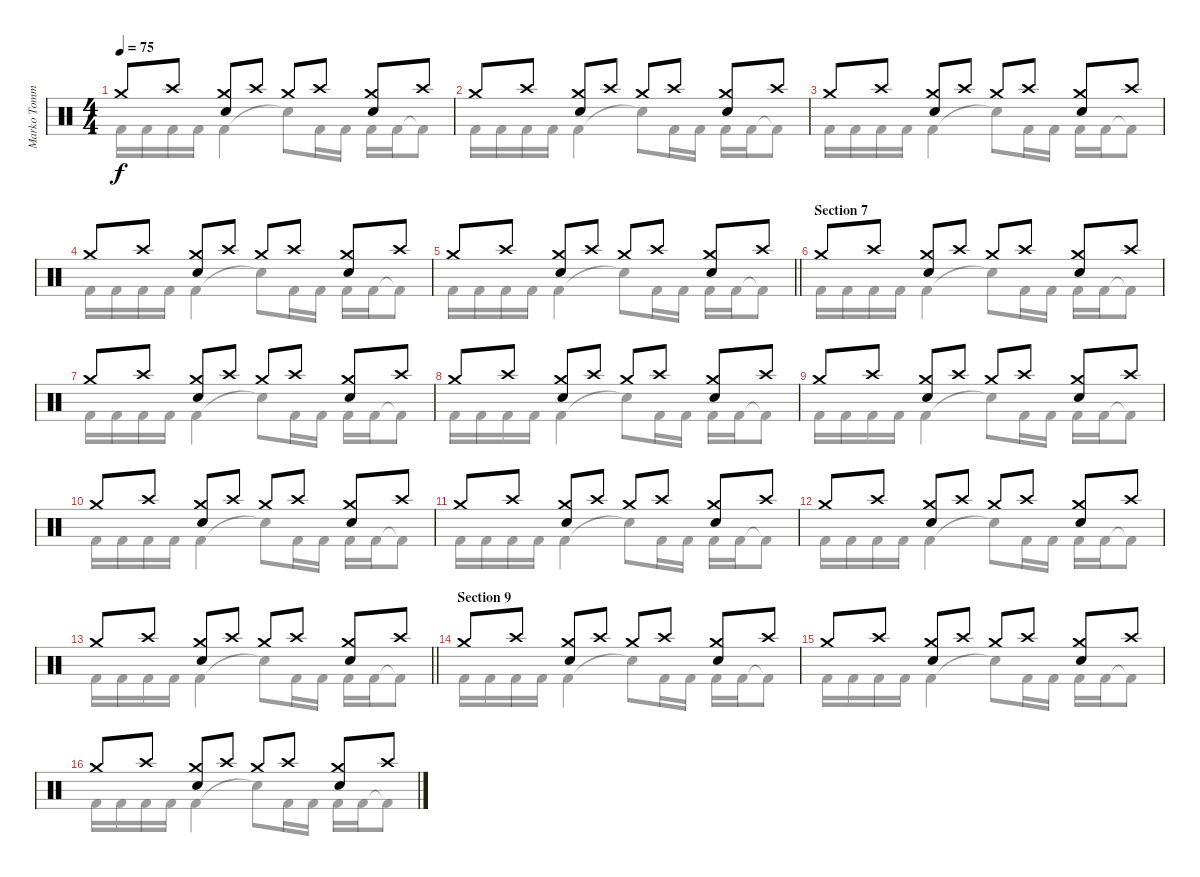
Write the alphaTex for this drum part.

\track ("Marko Tommila (drums)" "Marko Tomm") {instrument percussion}
\staff {score}
\articulation defaults
\voice
\ts (4 4)
\tempo 75
\clef neutral
\ks aminor "Crash medium (hit)".8{dy f} "Crash high (hit)".8
("Crash medium (hit)" "Electric Snare (hit)").8 "Crash high (hit)".8 "Crash medium (hit)".8 "Crash high (hit)".8 ("Crash medium (hit)" "Electric Snare (hit)").8 "Crash high (hit)".8 |
"Crash medium (hit)".8 "Crash high (hit)".8 ("Crash medium (hit)" "Electric Snare (hit)").8 "Crash high (hit)".8 "Crash medium (hit)".8 "Crash high (hit)".8 ("Crash medium (hit)" "Electric Snare (hit)").8 "Crash high (hit)".8 |
"Crash medium (hit)".8 "Crash high (hit)".8 ("Crash medium (hit)" "Electric Snare (hit)").8 "Crash high (hit)".8 "Crash medium (hit)".8 "Crash high (hit)".8 ("Crash medium (hit)" "Electric Snare (hit)").8 "Crash high (hit)".8 |
"Crash medium (hit)".8 "Crash high (hit)".8 ("Crash medium (hit)" "Electric Snare (hit)").8 "Crash high (hit)".8 "Crash medium (hit)".8 "Crash high (hit)".8 ("Crash medium (hit)" "Electric Snare (hit)").8 "Crash high (hit)".8 |
\barLineRight lightlight "Crash medium (hit)".8 "Crash high (hit)".8
("Crash medium (hit)" "Electric Snare (hit)").8 "Crash high (hit)".8 "Crash medium (hit)".8 "Crash high (hit)".8 ("Crash medium (hit)" "Electric Snare (hit)").8 "Crash high (hit)".8 |
\section ("" "Section 7")
"Crash medium (hit)".8 "Crash high (hit)".8 ("Crash medium (hit)" "Electric Snare (hit)").8 "Crash high (hit)".8 "Crash medium (hit)".8 "Crash high (hit)".8 ("Crash medium (hit)" "Electric Snare (hit)").8 "Crash high (hit)".8 |
"Crash medium (hit)".8 "Crash high (hit)".8 ("Crash medium (hit)" "Electric Snare (hit)").8 "Crash high (hit)".8 "Crash medium (hit)".8 "Crash high (hit)".8 ("Crash medium (hit)" "Electric Snare (hit)").8 "Crash high (hit)".8 |
"Crash medium (hit)".8 "Crash high (hit)".8 ("Crash medium (hit)" "Electric Snare (hit)").8 "Crash high (hit)".8 "Crash medium (hit)".8 "Crash high (hit)".8 ("Crash medium (hit)" "Electric Snare (hit)").8 "Crash high (hit)".8 |
"Crash medium (hit)".8 "Crash high (hit)".8 ("Crash medium (hit)" "Electric Snare (hit)").8 "Crash high (hit)".8 "Crash medium (hit)".8 "Crash high (hit)".8 ("Crash medium (hit)" "Electric Snare (hit)").8 "Crash high (hit)".8 |
"Crash medium (hit)".8 "Crash high (hit)".8 ("Crash medium (hit)" "Electric Snare (hit)").8 "Crash high (hit)".8 "Crash medium (hit)".8 "Crash high (hit)".8 ("Crash medium (hit)" "Electric Snare (hit)").8 "Crash high (hit)".8 |
"Crash medium (hit)".8 "Crash high (hit)".8 ("Crash medium (hit)" "Electric Snare (hit)").8 "Crash high (hit)".8 "Crash medium (hit)".8 "Crash high (hit)".8 ("Crash medium (hit)" "Electric Snare (hit)").8 "Crash high (hit)".8 |
"Crash medium (hit)".8 "Crash high (hit)".8 ("Crash medium (hit)" "Electric Snare (hit)").8 "Crash high (hit)".8 "Crash medium (hit)".8 "Crash high (hit)".8 ("Crash medium (hit)" "Electric Snare (hit)").8 "Crash high (hit)".8 |
\barLineRight lightlight "Crash medium (hit)".8 "Crash high (hit)".8
("Crash medium (hit)" "Electric Snare (hit)").8 "Crash high (hit)".8 "Crash medium (hit)".8 "Crash high (hit)".8 ("Crash medium (hit)" "Electric Snare (hit)").8 "Crash high (hit)".8 |
\section ("" "Section 9")
"Crash medium (hit)".8 "Crash high (hit)".8 ("Crash medium (hit)" "Electric Snare (hit)").8 "Crash high (hit)".8 "Crash medium (hit)".8 "Crash high (hit)".8 ("Crash medium (hit)" "Electric Snare (hit)").8 "Crash high (hit)".8 |
"Crash medium (hit)".8 "Crash high (hit)".8 ("Crash medium (hit)" "Electric Snare (hit)").8 "Crash high (hit)".8 "Crash medium (hit)".8 "Crash high (hit)".8 ("Crash medium (hit)" "Electric Snare (hit)").8 "Crash high (hit)".8 |
"Crash medium (hit)".8 "Crash high (hit)".8 ("Crash medium (hit)" "Electric Snare (hit)").8 "Crash high (hit)".8 "Crash medium (hit)".8 "Crash high (hit)".8 ("Crash medium (hit)" "Electric Snare (hit)").8 "Crash high (hit)".8
\voice
\clef neutral
\ottava regular
\simile none
\ks aminor "Kick (hit) 2".16{dy f} "Kick (hit) 2".16 "Kick (hit) 2".16 "Kick (hit) 2".16 "Kick (hit) 2".4 "Snare (hit)"{t}.8 "Kick (hit) 2".16 "Kick (hit) 2".16 "Kick (hit) 2".16 "Kick (hit) 2".16 "Kick (hit) 2"{t}.8
|
"Kick (hit) 2".16 "Kick (hit) 2".16 "Kick (hit) 2".16 "Kick (hit) 2".16 "Kick (hit) 2".4 "Snare (hit)"{t}.8 "Kick (hit) 2".16 "Kick (hit) 2".16 "Kick (hit) 2".16 "Kick (hit) 2".16 "Kick (hit) 2"{t}.8 |
"Kick (hit) 2".16 "Kick (hit) 2".16 "Kick (hit) 2".16 "Kick (hit) 2".16 "Kick (hit) 2".4 "Snare (hit)"{t}.8 "Kick (hit) 2".16 "Kick (hit) 2".16 "Kick (hit) 2".16 "Kick (hit) 2".16 "Kick (hit) 2"{t}.8 |
"Kick (hit) 2".16 "Kick (hit) 2".16 "Kick (hit) 2".16 "Kick (hit) 2".16 "Kick (hit) 2".4 "Snare (hit)"{t}.8 "Kick (hit) 2".16 "Kick (hit) 2".16 "Kick (hit) 2".16 "Kick (hit) 2".16 "Kick (hit) 2"{t}.8 |
\barLineRight lightlight "Kick (hit) 2".16 "Kick (hit) 2".16 "Kick (hit) 2".16 "Kick (hit) 2".16 "Kick (hit) 2".4 "Snare (hit)"{t}.8 "Kick (hit) 2".16 "Kick (hit) 2".16 "Kick (hit) 2".16 "Kick (hit) 2".16 "Kick (hit) 2"{t}.8
|
"Kick (hit) 2".16 "Kick (hit) 2".16 "Kick (hit) 2".16 "Kick (hit) 2".16 "Kick (hit) 2".4 "Snare (hit)"{t}.8 "Kick (hit) 2".16 "Kick (hit) 2".16 "Kick (hit) 2".16 "Kick (hit) 2".16 "Kick (hit) 2"{t}.8 |
"Kick (hit) 2".16 "Kick (hit) 2".16 "Kick (hit) 2".16 "Kick (hit) 2".16 "Kick (hit) 2".4 "Snare (hit)"{t}.8 "Kick (hit) 2".16 "Kick (hit) 2".16 "Kick (hit) 2".16 "Kick (hit) 2".16 "Kick (hit) 2"{t}.8 |
"Kick (hit) 2".16 "Kick (hit) 2".16 "Kick (hit) 2".16 "Kick (hit) 2".16 "Kick (hit) 2".4 "Snare (hit)"{t}.8 "Kick (hit) 2".16 "Kick (hit) 2".16 "Kick (hit) 2".16 "Kick (hit) 2".16 "Kick (hit) 2"{t}.8 |
"Kick (hit) 2".16 "Kick (hit) 2".16 "Kick (hit) 2".16 "Kick (hit) 2".16 "Kick (hit) 2".4 "Snare (hit)"{t}.8 "Kick (hit) 2".16 "Kick (hit) 2".16 "Kick (hit) 2".16 "Kick (hit) 2".16 "Kick (hit) 2"{t}.8 |
"Kick (hit) 2".16 "Kick (hit) 2".16 "Kick (hit) 2".16 "Kick (hit) 2".16 "Kick (hit) 2".4 "Snare (hit)"{t}.8 "Kick (hit) 2".16 "Kick (hit) 2".16 "Kick (hit) 2".16 "Kick (hit) 2".16 "Kick (hit) 2"{t}.8 |
"Kick (hit) 2".16 "Kick (hit) 2".16 "Kick (hit) 2".16 "Kick (hit) 2".16 "Kick (hit) 2".4 "Snare (hit)"{t}.8 "Kick (hit) 2".16 "Kick (hit) 2".16 "Kick (hit) 2".16 "Kick (hit) 2".16 "Kick (hit) 2"{t}.8 |
"Kick (hit) 2".16 "Kick (hit) 2".16 "Kick (hit) 2".16 "Kick (hit) 2".16 "Kick (hit) 2".4 "Snare (hit)"{t}.8 "Kick (hit) 2".16 "Kick (hit) 2".16 "Kick (hit) 2".16 "Kick (hit) 2".16 "Kick (hit) 2"{t}.8 |
\barLineRight lightlight "Kick (hit) 2".16 "Kick (hit) 2".16 "Kick (hit) 2".16 "Kick (hit) 2".16 "Kick (hit) 2".4 "Snare (hit)"{t}.8 "Kick (hit) 2".16 "Kick (hit) 2".16 "Kick (hit) 2".16 "Kick (hit) 2".16 "Kick (hit) 2"{t}.8
|
"Kick (hit) 2".16 "Kick (hit) 2".16 "Kick (hit) 2".16 "Kick (hit) 2".16 "Kick (hit) 2".4 "Snare (hit)"{t}.8 "Kick (hit) 2".16 "Kick (hit) 2".16 "Kick (hit) 2".16 "Kick (hit) 2".16 "Kick (hit) 2"{t}.8 |
"Kick (hit) 2".16 "Kick (hit) 2".16 "Kick (hit) 2".16 "Kick (hit) 2".16 "Kick (hit) 2".4 "Snare (hit)"{t}.8 "Kick (hit) 2".16 "Kick (hit) 2".16 "Kick (hit) 2".16 "Kick (hit) 2".16 "Kick (hit) 2"{t}.8 |
"Kick (hit) 2".16 "Kick (hit) 2".16 "Kick (hit) 2".16 "Kick (hit) 2".16 "Kick (hit) 2".4 "Snare (hit)"{t}.8 "Kick (hit) 2".16 "Kick (hit) 2".16 "Kick (hit) 2".16 "Kick (hit) 2".16 "Kick (hit) 2"{t}.8
